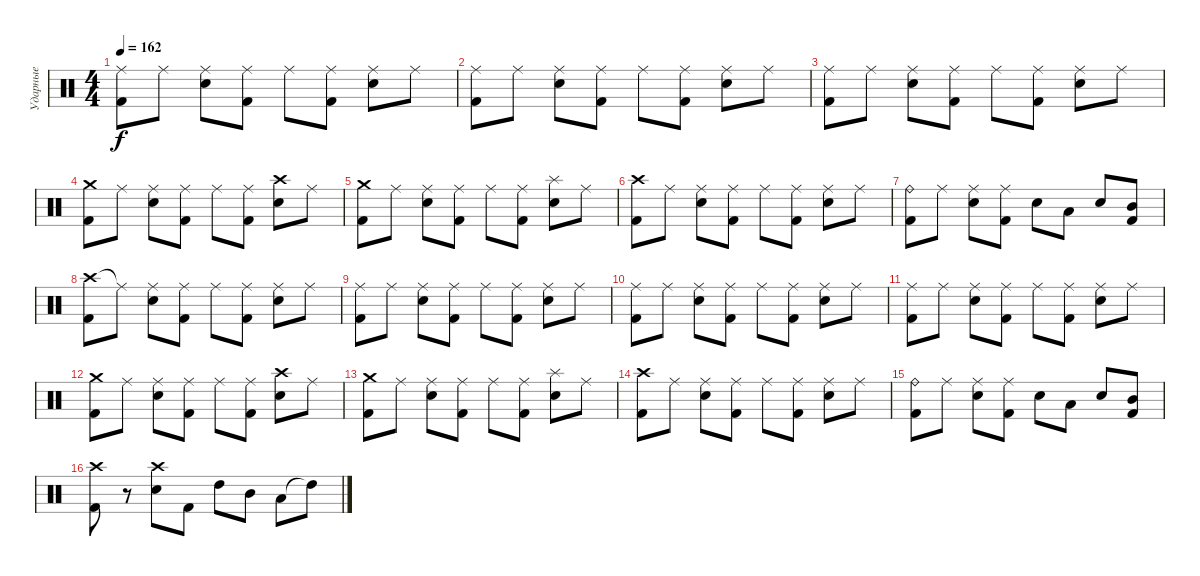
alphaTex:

\track ("Ударные" "Ударные") {instrument percussion}
\staff {score}
\articulation defaults
\ts (4 4)
\tempo 162
\clef neutral
\ks c
("Ride (middle)" "Kick (hit) 2").8{dy f} "Ride (middle)".8 ("Ride (middle)" "Snare (hit) 2").8 ("Ride (middle)" "Kick (hit) 2").8 "Ride (middle)".8 ("Ride (middle)" "Kick (hit) 2").8 ("Ride (middle)" "Snare (hit) 2").8 "Ride (middle)".8 |
("Ride (middle)" "Kick (hit) 2").8 "Ride (middle)".8 ("Ride (middle)" "Snare (hit) 2").8 ("Ride (middle)" "Kick (hit) 2").8 "Ride (middle)".8 ("Ride (middle)" "Kick (hit) 2").8 ("Ride (middle)" "Snare (hit) 2").8 "Ride (middle)".8 |
("Ride (middle)" "Kick (hit) 2").8 "Ride (middle)".8 ("Ride (middle)" "Snare (hit) 2").8 ("Ride (middle)" "Kick (hit) 2").8 "Ride (middle)".8 ("Ride (middle)" "Kick (hit) 2").8 ("Ride (middle)" "Snare (hit) 2").8 "Ride (middle)".8 |
("Crash medium (hit)" "Kick (hit) 2").8 "Ride (middle)".8 ("Ride (middle)" "Snare (hit) 2").8 ("Ride (middle)" "Kick (hit) 2").8 "Ride (middle)".8 ("Ride (middle)" "Kick (hit) 2").8 ("Crash high (hit)" "Snare (hit) 2").8 "Ride (middle)".8 |
("Crash medium (hit)" "Kick (hit) 2").8 "Ride (middle)".8 ("Ride (middle)" "Snare (hit) 2").8 ("Ride (middle)" "Kick (hit) 2").8 "Ride (middle)".8 ("Ride (middle)" "Kick (hit) 2").8 ("Splash (hit)" "Snare (hit) 2").8 "Ride (middle)".8 |
("Crash high (hit)" "Kick (hit) 2").8 "Ride (middle)".8 ("Ride (middle)" "Snare (hit) 2").8 ("Ride (middle)" "Kick (hit) 2").8 "Ride (middle)".8 ("Ride (middle)" "Kick (hit) 2").8 ("Ride (middle)" "Snare (hit) 2").8 "Ride (middle)".8 |
("Ride (bell)" "Kick (hit) 2").8 "Ride (middle)".8 ("Ride (middle)" "Snare (hit) 2").8 ("Ride (middle)" "Kick (hit) 2").8 "Snare (hit) 2".8 "Low Tom (hit)".8 "Snare (hit) 2".8 ("Mid Tom (hit)" "Kick (hit) 2").8 |
("Crash high (hit)" "Kick (hit) 2").8 "Ride (middle)"{t}.8 ("Ride (middle)" "Snare (hit) 2").8 ("Ride (middle)" "Kick (hit) 2").8 "Ride (middle)".8 ("Ride (middle)" "Kick (hit) 2").8 ("Ride (middle)" "Snare (hit) 2").8 "Ride (middle)".8 |
("Ride (middle)" "Kick (hit) 2").8 "Ride (middle)".8 ("Ride (middle)" "Snare (hit) 2").8 ("Ride (middle)" "Kick (hit) 2").8 "Ride (middle)".8 ("Ride (middle)" "Kick (hit) 2").8 ("Ride (middle)" "Snare (hit) 2").8 "Ride (middle)".8 |
("Ride (middle)" "Kick (hit) 2").8 "Ride (middle)".8 ("Ride (middle)" "Snare (hit) 2").8 ("Ride (middle)" "Kick (hit) 2").8 "Ride (middle)".8 ("Ride (middle)" "Kick (hit) 2").8 ("Ride (middle)" "Snare (hit) 2").8 "Ride (middle)".8 |
("Ride (middle)" "Kick (hit) 2").8 "Ride (middle)".8 ("Ride (middle)" "Snare (hit) 2").8 ("Ride (middle)" "Kick (hit) 2").8 "Ride (middle)".8 ("Ride (middle)" "Kick (hit) 2").8 ("Ride (middle)" "Snare (hit) 2").8 "Ride (middle)".8 |
("Crash medium (hit)" "Kick (hit) 2").8 "Ride (middle)".8 ("Ride (middle)" "Snare (hit) 2").8 ("Ride (middle)" "Kick (hit) 2").8 "Ride (middle)".8 ("Ride (middle)" "Kick (hit) 2").8 ("Crash high (hit)" "Snare (hit) 2").8 "Ride (middle)".8 |
("Crash medium (hit)" "Kick (hit) 2").8 "Ride (middle)".8 ("Ride (middle)" "Snare (hit) 2").8 ("Ride (middle)" "Kick (hit) 2").8 "Ride (middle)".8 ("Ride (middle)" "Kick (hit) 2").8 ("Splash (hit)" "Snare (hit) 2").8 "Ride (middle)".8 |
("Crash high (hit)" "Kick (hit) 2").8 "Ride (middle)".8 ("Ride (middle)" "Snare (hit) 2").8 ("Ride (middle)" "Kick (hit) 2").8 "Ride (middle)".8 ("Ride (middle)" "Kick (hit) 2").8 ("Ride (middle)" "Snare (hit) 2").8 "Ride (middle)".8 |
("Ride (bell)" "Kick (hit) 2").8 "Ride (middle)".8 ("Ride (middle)" "Snare (hit) 2").8 ("Ride (middle)" "Kick (hit) 2").8 "Snare (hit) 2".8 "Low Tom (hit)".8 "Snare (hit) 2".8 ("Mid Tom (hit)" "Kick (hit) 2").8 |
("Crash high (hit)" "Kick (hit) 2").8 r.8 ("Crash high (hit)" "Snare (hit) 2").8 "Kick (hit) 2".8 "High Tom (hit)".8 "Mid Tom (hit)".8 "Low Tom (hit)".8 "High Tom (hit)"{t}.8
